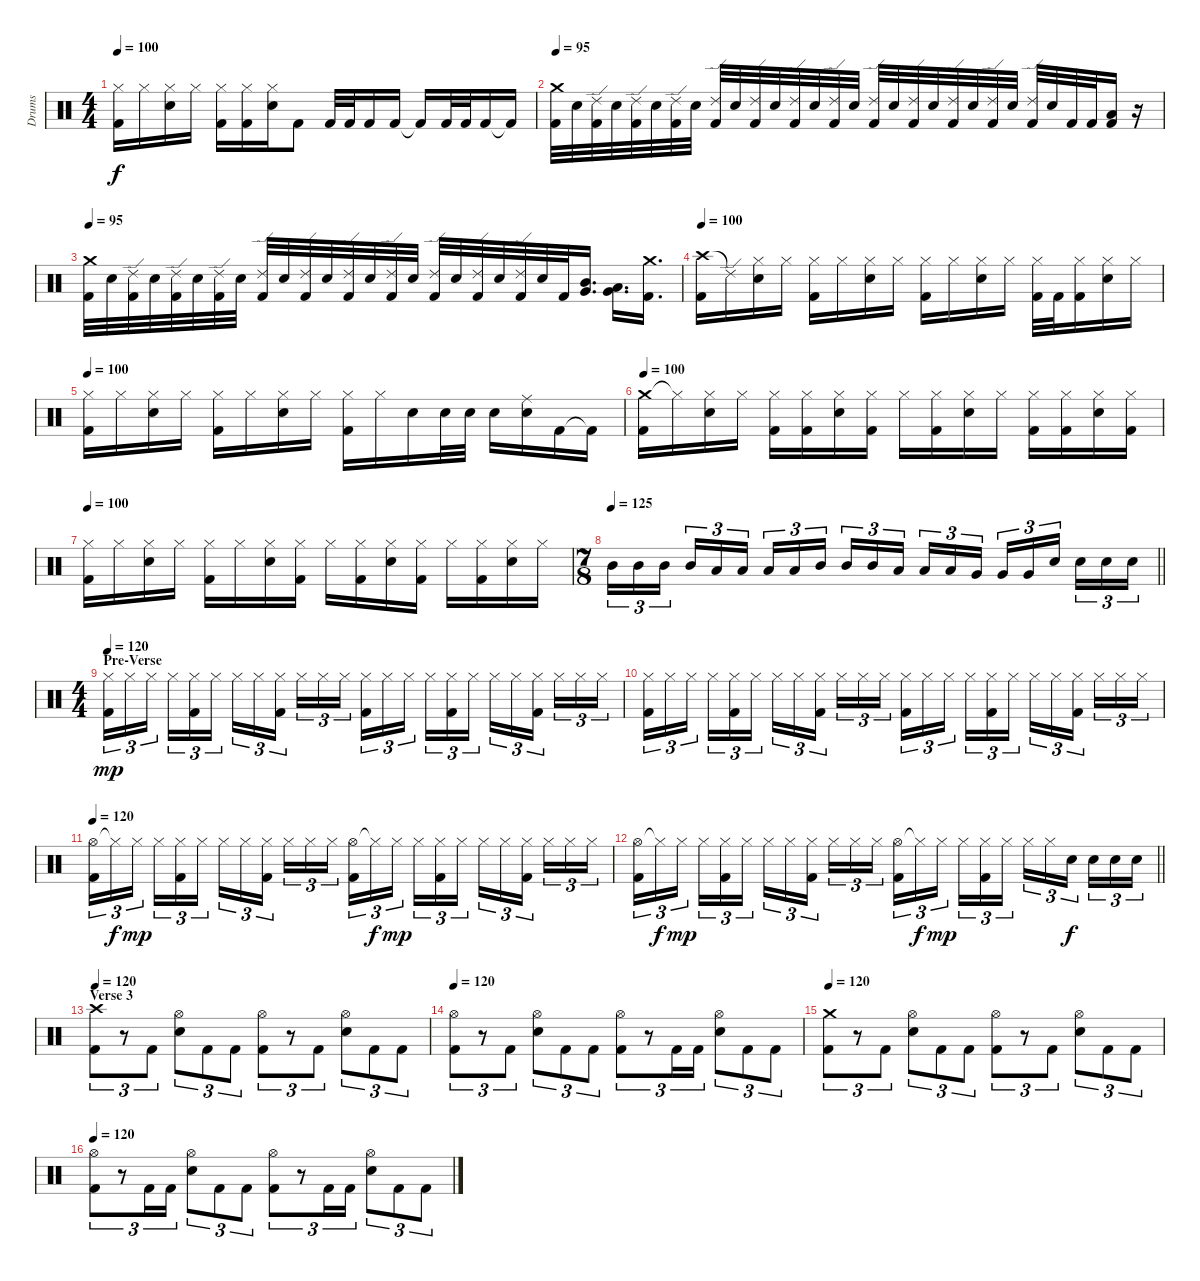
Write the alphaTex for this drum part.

\track ("Drums" "Drums") {instrument percussion}
\staff {score}
\articulation defaults
\ts (4 4)
\tempo 100
\clef neutral
\ks c
("Hi-Hat (closed)" "Kick (hit) 2").16{dy f} "Hi-Hat (closed)".16 ("Hi-Hat (closed)" "Electric Snare (hit)").16 "Hi-Hat (closed)".16 ("Hi-Hat (closed)" "Kick (hit) 2").16 ("Hi-Hat (closed)" "Kick (hit) 2").16 ("Hi-Hat (closed)" "Electric Snare (hit)").16 "Kick (hit) 2".8 "Kick (hit) 2".32 "Kick (hit) 2".32 "Kick (hit) 2".16 "Kick (hit) 2".16 "Kick (hit) 2"{t}.16 "Kick (hit) 2".32 "Kick (hit) 2".32 "Kick (hit) 2".16 "Kick (hit) 2"{t}.16 |
\tempo 95
("Crash medium (hit)" "Kick (hit) 2").32 "Electric Snare (hit)".32 ("Ride (edge) 2" "Kick (hit) 2").32 "Electric Snare (hit)".32 ("Ride (edge) 2" "Kick (hit) 2").32 "Electric Snare (hit)".32 ("Ride (edge) 2" "Kick (hit) 2").32 "Electric Snare (hit)".32 ("Ride (edge) 2" "Kick (hit) 2").32 "Electric Snare (hit)".32 ("Ride (edge) 2" "Kick (hit) 2").32 "Electric Snare (hit)".32 ("Ride (edge) 2" "Kick (hit) 2").32 "Electric Snare (hit)".32 ("Ride (edge) 2" "Kick (hit) 2").32 "Electric Snare (hit)".32 ("Ride (edge) 2" "Kick (hit) 2").32 "Electric Snare (hit)".32 ("Ride (edge) 2" "Kick (hit) 2").32 "Electric Snare (hit)".32 ("Ride (edge) 2" "Kick (hit) 2").32 "Electric Snare (hit)".32 ("Ride (edge) 2" "Kick (hit) 2").32 "Electric Snare (hit)".32 ("Ride (edge) 2" "Kick (hit) 2").32 "Electric Snare (hit)".32 "Kick (hit) 2".32 "Kick (hit) 2".32 ("Low Floor Tom (hit)" "Kick (hit) 2").16 r.16 |
\tempo 95
("Crash medium (hit)" "Kick (hit) 2").32 "Electric Snare (hit)".32 ("Ride (edge) 2" "Kick (hit) 2").32 "Electric Snare (hit)".32 ("Ride (edge) 2" "Kick (hit) 2").32 "Electric Snare (hit)".32 ("Ride (edge) 2" "Kick (hit) 2").32 "Electric Snare (hit)".32 ("Ride (edge) 2" "Kick (hit) 2").32 "Electric Snare (hit)".32 ("Ride (edge) 2" "Kick (hit) 2").32 "Electric Snare (hit)".32 ("Ride (edge) 2" "Kick (hit) 2").32 "Electric Snare (hit)".32 ("Ride (edge) 2" "Kick (hit) 2").32 "Electric Snare (hit)".32 ("Ride (edge) 2" "Kick (hit) 2").32 "Electric Snare (hit)".32 ("Ride (edge) 2" "Kick (hit) 2").32 "Electric Snare (hit)".32 ("Ride (edge) 2" "Kick (hit) 2").32 "Electric Snare (hit)".32 "Kick (hit) 2".32 ("Mid Tom (hit)" "Very Low Tom (hit)").16{d} ("Low Tom (hit)" "Very Low Tom (hit)").16{d} ("Crash medium (hit)" "Kick (hit) 2").16{d} |
\tempo 100
("Crash high (hit)" "Kick (hit) 2").16 "Ride (edge) 2"{t}.16 ("Hi-Hat (closed)" "Electric Snare (hit)").16 "Hi-Hat (closed)".16 ("Hi-Hat (closed)" "Kick (hit) 2").16 "Hi-Hat (closed)".16 ("Hi-Hat (closed)" "Electric Snare (hit)").16 "Hi-Hat (closed)".16 ("Hi-Hat (closed)" "Kick (hit) 2").16 "Hi-Hat (closed)".16 ("Hi-Hat (closed)" "Electric Snare (hit)").16 "Hi-Hat (closed)".16 ("Hi-Hat (closed)" "Kick (hit) 2").32 "Kick (hit) 2".32 ("Hi-Hat (closed)" "Kick (hit) 2").16 ("Hi-Hat (closed)" "Electric Snare (hit)").16 "Hi-Hat (closed)".16 |
\tempo 100
("Hi-Hat (closed)" "Kick (hit) 2").16 "Hi-Hat (closed)".16 ("Hi-Hat (closed)" "Electric Snare (hit)").16 "Hi-Hat (closed)".16 ("Hi-Hat (closed)" "Kick (hit) 2").16 "Hi-Hat (closed)".16 ("Hi-Hat (closed)" "Electric Snare (hit)").16 "Hi-Hat (closed)".16 ("Hi-Hat (closed)" "Kick (hit) 2").16 "Hi-Hat (closed)".16 "Electric Snare (hit)".16 "Electric Snare (hit)".32 "Electric Snare (hit)".32 "Electric Snare (hit)".16 ("Ride (middle)" "Electric Snare (hit)").16 "Kick (hit) 2".16 "Kick (hit) 2"{t}.16 |
\tempo 100
("Crash medium (hit)" "Kick (hit) 2").16 "Hi-Hat (closed)"{t}.16 ("Hi-Hat (closed)" "Electric Snare (hit)").16 "Hi-Hat (closed)".16 ("Hi-Hat (closed)" "Kick (hit) 2").16 ("Hi-Hat (closed)" "Kick (hit) 2").16 ("Hi-Hat (closed)" "Electric Snare (hit)").16 ("Hi-Hat (closed)" "Kick (hit) 2").16 "Hi-Hat (closed)".16 ("Hi-Hat (closed)" "Kick (hit) 2").16 ("Hi-Hat (closed)" "Electric Snare (hit)").16 "Hi-Hat (closed)".16 ("Hi-Hat (closed)" "Kick (hit) 2").16 ("Hi-Hat (closed)" "Kick (hit) 2").16 ("Hi-Hat (closed)" "Electric Snare (hit)").16 ("Hi-Hat (closed)" "Kick (hit) 2").16 |
\tempo 100
("Hi-Hat (closed)" "Kick (hit) 2").16 "Hi-Hat (closed)".16 ("Hi-Hat (closed)" "Electric Snare (hit)").16 "Hi-Hat (closed)".16 ("Hi-Hat (closed)" "Kick (hit) 2").16 "Hi-Hat (closed)".16 ("Hi-Hat (closed)" "Electric Snare (hit)").16 ("Hi-Hat (closed)" "Kick (hit) 2").16 "Hi-Hat (closed)".16 ("Hi-Hat (closed)" "Kick (hit) 2").16 ("Hi-Hat (closed)" "Electric Snare (hit)").16 ("Hi-Hat (closed)" "Kick (hit) 2").16 "Hi-Hat (closed)".16 ("Hi-Hat (closed)" "Kick (hit) 2").16 ("Hi-Hat (closed)" "Electric Snare (hit)").16 "Hi-Hat (closed)".16 |
\ts (7 8)
\tempo 125
\barLineRight lightlight "Mid Tom (hit)".16{tu (3 2)} "Mid Tom (hit)".16{tu (3 2)} "Mid Tom (hit)".16{tu (3 2)} "Mid Tom (hit)".16{tu (3 2)} "Low Tom (hit)".16{tu (3 2)} "Low Tom (hit)".16{tu (3 2)} "Low Tom (hit)".16{tu (3 2)} "Low Tom (hit)".16{tu (3 2)} "Mid Tom (hit)".16{tu (3 2)} "Mid Tom (hit)".16{tu (3 2)} "Mid Tom (hit)".16{tu (3 2)} "Low Tom (hit)".16{tu (3 2)} "Low Tom (hit)".16{tu (3 2)} "Low Tom (hit)".16{tu (3 2)} "Very Low Tom (hit)".16{tu (3 2)} "Very Low Tom (hit)".16{tu (3 2)} "Very Low Tom (hit)".16{tu (3 2)} "Electric Snare (hit)".16{tu (3 2)} "Electric Snare (hit)".16{tu (3 2)} "Electric Snare (hit)".16{tu (3 2)} "Electric Snare (hit)".16{tu (3 2)}
|
\ts (4 4)
\section ("" "Pre-Verse")
\tempo 120
("Hi-Hat (closed)" "Kick (hit) 2").16{tu (3 2) dy mp} "Hi-Hat (closed)".16{tu (3 2)} "Hi-Hat (closed)".16{tu (3 2) beam splitsecondary} "Hi-Hat (closed)".16{tu (3 2)} ("Hi-Hat (closed)" "Kick (hit) 2").16{tu (3 2)} "Hi-Hat (closed)".16{tu (3 2)} "Hi-Hat (closed)".16{tu (3 2)} "Hi-Hat (closed)".16{tu (3 2)} ("Hi-Hat (closed)" "Kick (hit) 2").16{tu (3 2) beam splitsecondary} "Hi-Hat (closed)".16{tu (3 2)} "Hi-Hat (closed)".16{tu (3 2)} "Hi-Hat (closed)".16{tu (3 2)} ("Hi-Hat (closed)" "Kick (hit) 2").16{tu (3 2)} "Hi-Hat (closed)".16{tu (3 2)} "Hi-Hat (closed)".16{tu (3 2) beam splitsecondary} "Hi-Hat (closed)".16{tu (3 2)} ("Hi-Hat (closed)" "Kick (hit) 2").16{tu (3 2)} "Hi-Hat (closed)".16{tu (3 2)} "Hi-Hat (closed)".16{tu (3 2)} "Hi-Hat (closed)".16{tu (3 2)} ("Hi-Hat (closed)" "Kick (hit) 2").16{tu (3 2) beam splitsecondary} "Hi-Hat (closed)".16{tu (3 2)} "Hi-Hat (closed)".16{tu (3 2)} "Hi-Hat (closed)".16{tu (3 2)} |
("Hi-Hat (closed)" "Kick (hit) 2").16{tu (3 2)} "Hi-Hat (closed)".16{tu (3 2)} "Hi-Hat (closed)".16{tu (3 2) beam splitsecondary} "Hi-Hat (closed)".16{tu (3 2)} ("Hi-Hat (closed)" "Kick (hit) 2").16{tu (3 2)} "Hi-Hat (closed)".16{tu (3 2)} "Hi-Hat (closed)".16{tu (3 2)} "Hi-Hat (closed)".16{tu (3 2)} ("Hi-Hat (closed)" "Kick (hit) 2").16{tu (3 2) beam splitsecondary} "Hi-Hat (closed)".16{tu (3 2)} "Hi-Hat (closed)".16{tu (3 2)} "Hi-Hat (closed)".16{tu (3 2)} ("Hi-Hat (closed)" "Kick (hit) 2").16{tu (3 2)} "Hi-Hat (closed)".16{tu (3 2)} "Hi-Hat (closed)".16{tu (3 2) beam splitsecondary} "Hi-Hat (closed)".16{tu (3 2)} ("Hi-Hat (closed)" "Kick (hit) 2").16{tu (3 2)} "Hi-Hat (closed)".16{tu (3 2)} "Hi-Hat (closed)".16{tu (3 2)} "Hi-Hat (closed)".16{tu (3 2)} ("Hi-Hat (closed)" "Kick (hit) 2").16{tu (3 2) beam splitsecondary} "Hi-Hat (closed)".16{tu (3 2)} "Hi-Hat (closed)".16{tu (3 2)} "Hi-Hat (closed)".16{tu (3 2)} |
\tempo 120
("Hi-Hat (open)" "Kick (hit) 2").16{tu (3 2)} "Hi-Hat (closed)"{t}.16{tu (3 2) dy f} "Hi-Hat (closed)".16{tu (3 2) dy mp beam splitsecondary} "Hi-Hat (closed)".16{tu (3 2)} ("Hi-Hat (closed)" "Kick (hit) 2").16{tu (3 2)} "Hi-Hat (closed)".16{tu (3 2)} "Hi-Hat (closed)".16{tu (3 2)} "Hi-Hat (closed)".16{tu (3 2)} ("Hi-Hat (closed)" "Kick (hit) 2").16{tu (3 2) beam splitsecondary} "Hi-Hat (closed)".16{tu (3 2)} "Hi-Hat (closed)".16{tu (3 2)} "Hi-Hat (closed)".16{tu (3 2)} ("Hi-Hat (open)" "Kick (hit) 2").16{tu (3 2)} "Hi-Hat (closed)"{t}.16{tu (3 2) dy f} "Hi-Hat (closed)".16{tu (3 2) dy mp beam splitsecondary} "Hi-Hat (closed)".16{tu (3 2)} ("Hi-Hat (closed)" "Kick (hit) 2").16{tu (3 2)} "Hi-Hat (closed)".16{tu (3 2)} "Hi-Hat (closed)".16{tu (3 2)} "Hi-Hat (closed)".16{tu (3 2)} ("Hi-Hat (closed)" "Kick (hit) 2").16{tu (3 2) beam splitsecondary} "Hi-Hat (closed)".16{tu (3 2)} "Hi-Hat (closed)".16{tu (3 2)} "Hi-Hat (closed)".16{tu (3 2)} |
\barLineRight lightlight
("Hi-Hat (open)" "Kick (hit) 2").16{tu (3 2)} "Hi-Hat (closed)"{t}.16{tu (3 2) dy f} "Hi-Hat (closed)".16{tu (3 2) dy mp beam splitsecondary} "Hi-Hat (closed)".16{tu (3 2)} ("Hi-Hat (closed)" "Kick (hit) 2").16{tu (3 2)} "Hi-Hat (closed)".16{tu (3 2)} "Hi-Hat (closed)".16{tu (3 2)} "Hi-Hat (closed)".16{tu (3 2)} ("Hi-Hat (closed)" "Kick (hit) 2").16{tu (3 2) beam splitsecondary} "Hi-Hat (closed)".16{tu (3 2)} "Hi-Hat (closed)".16{tu (3 2)} "Hi-Hat (closed)".16{tu (3 2)} ("Hi-Hat (open)" "Kick (hit) 2").16{tu (3 2)} "Hi-Hat (closed)"{t}.16{tu (3 2) dy f} "Hi-Hat (closed)".16{tu (3 2) dy mp beam splitsecondary} "Hi-Hat (closed)".16{tu (3 2)} ("Hi-Hat (closed)" "Kick (hit) 2").16{tu (3 2)} "Hi-Hat (closed)".16{tu (3 2)} "Hi-Hat (closed)".16{tu (3 2)} "Hi-Hat (closed)".16{tu (3 2)} "Electric Snare (hit)".16{tu (3 2) dy f beam splitsecondary} "Electric Snare (hit)".16{tu (3 2)} "Electric Snare (hit)".16{tu (3 2)} "Electric Snare (hit)".16{tu (3 2)} |
\section ("" "Verse 3")
\tempo 120
("Crash high (hit)" "Kick (hit) 2").8{tu (3 2)} r.8{tu (3 2)} "Kick (hit) 2".8{tu (3 2)} ("Hi-Hat (open)" "Electric Snare (hit)").8{tu (3 2)} "Kick (hit) 2".8{tu (3 2)} "Kick (hit) 2".8{tu (3 2)} ("Hi-Hat (open)" "Kick (hit) 2").8{tu (3 2)} r.8{tu (3 2)} "Kick (hit) 2".8{tu (3 2)} ("Hi-Hat (open)" "Electric Snare (hit)").8{tu (3 2)} "Kick (hit) 2".8{tu (3 2)} "Kick (hit) 2".8{tu (3 2)} |
\tempo 120
("Hi-Hat (open)" "Kick (hit) 2").8{tu (3 2)} r.8{tu (3 2)} "Kick (hit) 2".8{tu (3 2)} ("Hi-Hat (open)" "Electric Snare (hit)").8{tu (3 2)} "Kick (hit) 2".8{tu (3 2)} "Kick (hit) 2".8{tu (3 2)} ("Hi-Hat (open)" "Kick (hit) 2").8{tu (3 2)} r.8{tu (3 2)} "Kick (hit) 2".16{tu (3 2)} "Kick (hit) 2".16{tu (3 2)} ("Hi-Hat (open)" "Electric Snare (hit)").8{tu (3 2)} "Kick (hit) 2".8{tu (3 2)} "Kick (hit) 2".8{tu (3 2)} |
\tempo 120
("Crash medium (hit)" "Kick (hit) 2").8{tu (3 2)} r.8{tu (3 2)} "Kick (hit) 2".8{tu (3 2)} ("Hi-Hat (open)" "Electric Snare (hit)").8{tu (3 2)} "Kick (hit) 2".8{tu (3 2)} "Kick (hit) 2".8{tu (3 2)} ("Hi-Hat (open)" "Kick (hit) 2").8{tu (3 2)} r.8{tu (3 2)} "Kick (hit) 2".8{tu (3 2)} ("Hi-Hat (open)" "Electric Snare (hit)").8{tu (3 2)} "Kick (hit) 2".8{tu (3 2)} "Kick (hit) 2".8{tu (3 2)} |
\tempo 120
("Hi-Hat (open)" "Kick (hit) 2").8{tu (3 2)} r.8{tu (3 2)} "Kick (hit) 2".16{tu (3 2)} "Kick (hit) 2".16{tu (3 2)} ("Hi-Hat (open)" "Electric Snare (hit)").8{tu (3 2)} "Kick (hit) 2".8{tu (3 2)} "Kick (hit) 2".8{tu (3 2)} ("Hi-Hat (open)" "Kick (hit) 2").8{tu (3 2)} r.8{tu (3 2)} "Kick (hit) 2".16{tu (3 2)} "Kick (hit) 2".16{tu (3 2)} ("Hi-Hat (open)" "Electric Snare (hit)").8{tu (3 2)} "Kick (hit) 2".8{tu (3 2)} "Kick (hit) 2".8{tu (3 2)}
